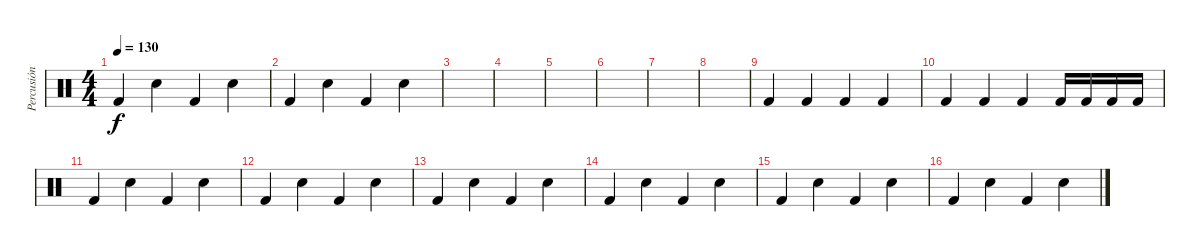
\track ("Percusión" "Percusión") {instrument percussion}
\staff {score}
\articulation defaults
\ts (4 4)
\tempo 130
\clef neutral
\ks c "Kick (hit) 2".4{dy f} "Snare (hit) 2".4 "Kick (hit) 2".4 "Snare (hit) 2".4
|
"Kick (hit) 2".4 "Snare (hit) 2".4 "Kick (hit) 2".4 "Snare (hit) 2".4 |
|
|
|
|
|
|
"Kick (hit) 2".4 "Kick (hit) 2".4 "Kick (hit) 2".4 "Kick (hit) 2".4 |
"Kick (hit) 2".4 "Kick (hit) 2".4 "Kick (hit) 2".4 "Kick (hit) 2".16 "Kick (hit) 2".16 "Kick (hit) 2".16 "Kick (hit) 2".16 |
"Kick (hit) 2".4 "Snare (hit) 2".4 "Kick (hit) 2".4 "Snare (hit) 2".4 |
"Kick (hit) 2".4 "Snare (hit) 2".4 "Kick (hit) 2".4 "Snare (hit) 2".4 |
"Kick (hit) 2".4 "Snare (hit) 2".4 "Kick (hit) 2".4 "Snare (hit) 2".4 |
"Kick (hit) 2".4 "Snare (hit) 2".4 "Kick (hit) 2".4 "Snare (hit) 2".4 |
"Kick (hit) 2".4 "Snare (hit) 2".4 "Kick (hit) 2".4 "Snare (hit) 2".4 |
"Kick (hit) 2".4 "Snare (hit) 2".4 "Kick (hit) 2".4 "Snare (hit) 2".4
